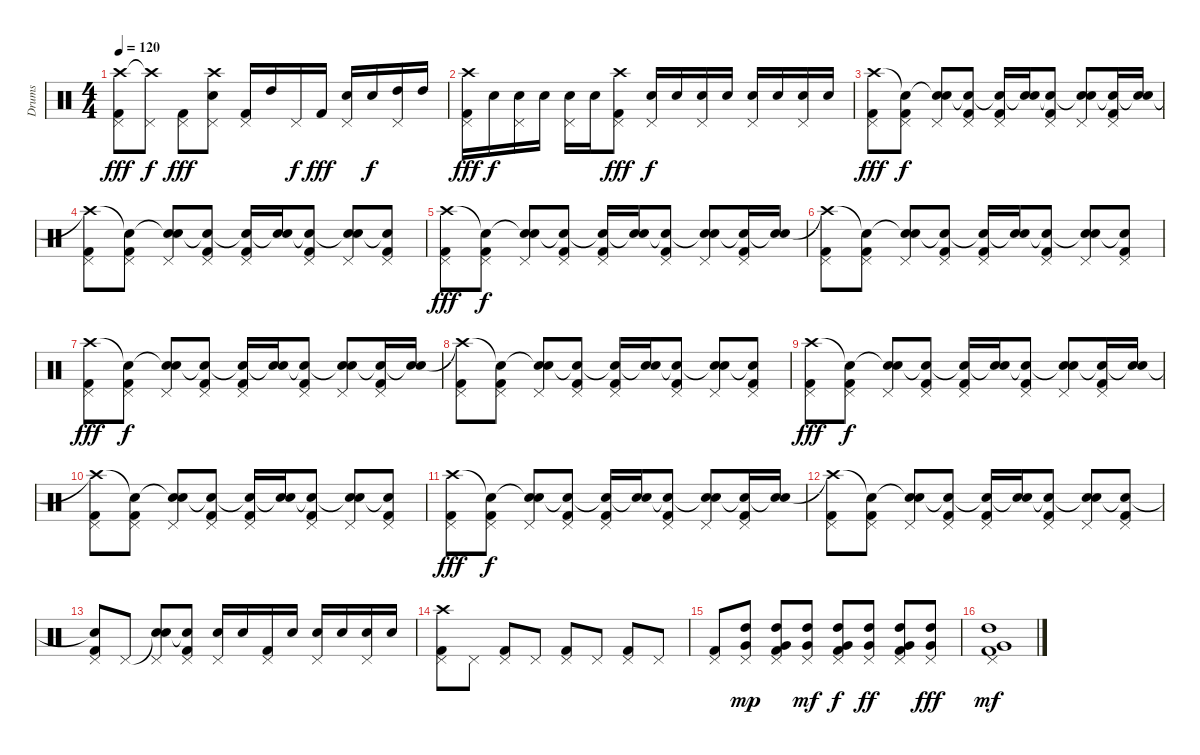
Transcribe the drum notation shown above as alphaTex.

\track ("Drums" "Drums") {instrument percussion}
\staff {score}
\articulation defaults
\ts (4 4)
\tempo 120
\clef neutral
\ks c
("Crash high (hit)" "Pedal Hi-Hat (hit)" "Kick (hit) 2").8{dy fff} ("Crash high (hit)"{t} "Pedal Hi-Hat (hit)").8{dy f} ("Pedal Hi-Hat (hit)" "Kick (hit) 2").8{dy fff} ("Crash high (hit)" "Pedal Hi-Hat (hit)" "Electric Snare (hit)").8 ("Pedal Hi-Hat (hit)" "Kick (hit) 2").16 "High Tom (hit)".16 "Pedal Hi-Hat (hit)".16{dy f} "Kick (hit) 2".16{dy fff} ("Pedal Hi-Hat (hit)" "Electric Snare (hit)").16 "Electric Snare (hit)".16{dy f} ("Pedal Hi-Hat (hit)" "High Tom (hit)").16 "High Tom (hit)".16 |
("Crash high (hit)" "Pedal Hi-Hat (hit)" "Kick (hit) 2").16{dy fff} "Electric Snare (hit)".16{dy f} ("Pedal Hi-Hat (hit)" "Electric Snare (hit)").16 "Electric Snare (hit)".16 ("Pedal Hi-Hat (hit)" "Electric Snare (hit)").16 "Electric Snare (hit)".16 ("Crash high (hit)" "Pedal Hi-Hat (hit)" "Kick (hit) 2").8{dy fff} ("Pedal Hi-Hat (hit)" "Electric Snare (hit)").16{dy f} "Electric Snare (hit)".16 ("Pedal Hi-Hat (hit)" "Electric Snare (hit)").16 "Electric Snare (hit)".16 ("Pedal Hi-Hat (hit)" "Electric Snare (hit)").16 "Electric Snare (hit)".16 ("Pedal Hi-Hat (hit)" "Electric Snare (hit)").16 "Electric Snare (hit)".16 |
("Crash high (hit)" "Pedal Hi-Hat (hit)" "Kick (hit) 2").8{dy fff} ("Snare (hit)"{t} "Pedal Hi-Hat (hit)" "Kick (hit) 2").8{dy f} ("Snare (hit)"{t} "Pedal Hi-Hat (hit)" "Electric Snare (hit)").8 ("Snare (hit)"{t} "Pedal Hi-Hat (hit)" "Kick (hit) 2").8 ("Snare (hit)"{t} "Pedal Hi-Hat (hit)" "Kick (hit) 2").16 ("Snare (hit)"{t} "Electric Snare (hit)").16 ("Snare (hit)"{t} "Pedal Hi-Hat (hit)" "Kick (hit) 2").8 ("Snare (hit)"{t} "Pedal Hi-Hat (hit)" "Electric Snare (hit)").8 ("Snare (hit)"{t} "Pedal Hi-Hat (hit)" "Kick (hit) 2").16 ("Snare (hit)"{t} "Electric Snare (hit)").16 |
("Crash high (hit)"{t} "Pedal Hi-Hat (hit)" "Kick (hit) 2").8 ("Snare (hit)"{t} "Pedal Hi-Hat (hit)" "Kick (hit) 2").8 ("Snare (hit)"{t} "Pedal Hi-Hat (hit)" "Electric Snare (hit)").8 ("Snare (hit)"{t} "Pedal Hi-Hat (hit)" "Kick (hit) 2").8 ("Snare (hit)"{t} "Pedal Hi-Hat (hit)" "Kick (hit) 2").16 ("Snare (hit)"{t} "Electric Snare (hit)").16 ("Snare (hit)"{t} "Pedal Hi-Hat (hit)" "Kick (hit) 2").8 ("Snare (hit)"{t} "Pedal Hi-Hat (hit)" "Electric Snare (hit)").8 ("Snare (hit)"{t} "Pedal Hi-Hat (hit)" "Kick (hit) 2").8 |
("Crash high (hit)" "Pedal Hi-Hat (hit)" "Kick (hit) 2").8{dy fff} ("Snare (hit)"{t} "Pedal Hi-Hat (hit)" "Kick (hit) 2").8{dy f} ("Snare (hit)"{t} "Pedal Hi-Hat (hit)" "Electric Snare (hit)").8 ("Snare (hit)"{t} "Pedal Hi-Hat (hit)" "Kick (hit) 2").8 ("Snare (hit)"{t} "Pedal Hi-Hat (hit)" "Kick (hit) 2").16 ("Snare (hit)"{t} "Electric Snare (hit)").16 ("Snare (hit)"{t} "Pedal Hi-Hat (hit)" "Kick (hit) 2").8 ("Snare (hit)"{t} "Pedal Hi-Hat (hit)" "Electric Snare (hit)").8 ("Snare (hit)"{t} "Pedal Hi-Hat (hit)" "Kick (hit) 2").16 ("Snare (hit)"{t} "Electric Snare (hit)").16 |
("Crash high (hit)"{t} "Pedal Hi-Hat (hit)" "Kick (hit) 2").8 ("Snare (hit)"{t} "Pedal Hi-Hat (hit)" "Kick (hit) 2").8 ("Snare (hit)"{t} "Pedal Hi-Hat (hit)" "Electric Snare (hit)").8 ("Snare (hit)"{t} "Pedal Hi-Hat (hit)" "Kick (hit) 2").8 ("Snare (hit)"{t} "Pedal Hi-Hat (hit)" "Kick (hit) 2").16 ("Snare (hit)"{t} "Electric Snare (hit)").16 ("Snare (hit)"{t} "Pedal Hi-Hat (hit)" "Kick (hit) 2").8 ("Snare (hit)"{t} "Pedal Hi-Hat (hit)" "Electric Snare (hit)").8 ("Snare (hit)"{t} "Pedal Hi-Hat (hit)" "Kick (hit) 2").8 |
("Crash high (hit)" "Pedal Hi-Hat (hit)" "Kick (hit) 2").8{dy fff} ("Snare (hit)"{t} "Pedal Hi-Hat (hit)" "Kick (hit) 2").8{dy f} ("Snare (hit)"{t} "Pedal Hi-Hat (hit)" "Electric Snare (hit)").8 ("Snare (hit)"{t} "Pedal Hi-Hat (hit)" "Kick (hit) 2").8 ("Snare (hit)"{t} "Pedal Hi-Hat (hit)" "Kick (hit) 2").16 ("Snare (hit)"{t} "Electric Snare (hit)").16 ("Snare (hit)"{t} "Pedal Hi-Hat (hit)" "Kick (hit) 2").8 ("Snare (hit)"{t} "Pedal Hi-Hat (hit)" "Electric Snare (hit)").8 ("Snare (hit)"{t} "Pedal Hi-Hat (hit)" "Kick (hit) 2").16 ("Snare (hit)"{t} "Electric Snare (hit)").16 |
("Crash high (hit)"{t} "Pedal Hi-Hat (hit)" "Kick (hit) 2").8 ("Snare (hit)"{t} "Pedal Hi-Hat (hit)" "Kick (hit) 2").8 ("Snare (hit)"{t} "Pedal Hi-Hat (hit)" "Electric Snare (hit)").8 ("Snare (hit)"{t} "Pedal Hi-Hat (hit)" "Kick (hit) 2").8 ("Snare (hit)"{t} "Pedal Hi-Hat (hit)" "Kick (hit) 2").16 ("Snare (hit)"{t} "Electric Snare (hit)").16 ("Snare (hit)"{t} "Pedal Hi-Hat (hit)" "Kick (hit) 2").8 ("Snare (hit)"{t} "Pedal Hi-Hat (hit)" "Electric Snare (hit)").8 ("Snare (hit)"{t} "Pedal Hi-Hat (hit)" "Kick (hit) 2").8 |
("Crash high (hit)" "Pedal Hi-Hat (hit)" "Kick (hit) 2").8{dy fff} ("Snare (hit)"{t} "Pedal Hi-Hat (hit)" "Kick (hit) 2").8{dy f} ("Snare (hit)"{t} "Pedal Hi-Hat (hit)" "Electric Snare (hit)").8 ("Snare (hit)"{t} "Pedal Hi-Hat (hit)" "Kick (hit) 2").8 ("Snare (hit)"{t} "Pedal Hi-Hat (hit)" "Kick (hit) 2").16 ("Snare (hit)"{t} "Electric Snare (hit)").16 ("Snare (hit)"{t} "Pedal Hi-Hat (hit)" "Kick (hit) 2").8 ("Snare (hit)"{t} "Pedal Hi-Hat (hit)" "Electric Snare (hit)").8 ("Snare (hit)"{t} "Pedal Hi-Hat (hit)" "Kick (hit) 2").16 ("Snare (hit)"{t} "Electric Snare (hit)").16 |
("Crash high (hit)"{t} "Pedal Hi-Hat (hit)" "Kick (hit) 2").8 ("Snare (hit)"{t} "Pedal Hi-Hat (hit)" "Kick (hit) 2").8 ("Snare (hit)"{t} "Pedal Hi-Hat (hit)" "Electric Snare (hit)").8 ("Snare (hit)"{t} "Pedal Hi-Hat (hit)" "Kick (hit) 2").8 ("Snare (hit)"{t} "Pedal Hi-Hat (hit)" "Kick (hit) 2").16 ("Snare (hit)"{t} "Electric Snare (hit)").16 ("Snare (hit)"{t} "Pedal Hi-Hat (hit)" "Kick (hit) 2").8 ("Snare (hit)"{t} "Pedal Hi-Hat (hit)" "Electric Snare (hit)").8 ("Snare (hit)"{t} "Pedal Hi-Hat (hit)" "Kick (hit) 2").8 |
("Crash high (hit)" "Pedal Hi-Hat (hit)" "Kick (hit) 2").8{dy fff} ("Snare (hit)"{t} "Pedal Hi-Hat (hit)" "Kick (hit) 2").8{dy f} ("Snare (hit)"{t} "Pedal Hi-Hat (hit)" "Electric Snare (hit)").8 ("Snare (hit)"{t} "Pedal Hi-Hat (hit)" "Kick (hit) 2").8 ("Snare (hit)"{t} "Pedal Hi-Hat (hit)" "Kick (hit) 2").16 ("Snare (hit)"{t} "Electric Snare (hit)").16 ("Snare (hit)"{t} "Pedal Hi-Hat (hit)" "Kick (hit) 2").8 ("Snare (hit)"{t} "Pedal Hi-Hat (hit)" "Electric Snare (hit)").8 ("Snare (hit)"{t} "Pedal Hi-Hat (hit)" "Kick (hit) 2").16 ("Snare (hit)"{t} "Electric Snare (hit)").16 |
("Crash high (hit)"{t} "Pedal Hi-Hat (hit)" "Kick (hit) 2").8 ("Snare (hit)"{t} "Pedal Hi-Hat (hit)" "Kick (hit) 2").8 ("Snare (hit)"{t} "Pedal Hi-Hat (hit)" "Electric Snare (hit)").8 ("Snare (hit)"{t} "Pedal Hi-Hat (hit)" "Kick (hit) 2").8 ("Snare (hit)"{t} "Pedal Hi-Hat (hit)" "Kick (hit) 2").16 ("Snare (hit)"{t} "Electric Snare (hit)").16 ("Snare (hit)"{t} "Pedal Hi-Hat (hit)" "Kick (hit) 2").8 ("Snare (hit)"{t} "Pedal Hi-Hat (hit)" "Electric Snare (hit)").8 ("Snare (hit)"{t} "Pedal Hi-Hat (hit)" "Kick (hit) 2").8 |
("Snare (hit)"{t} "Pedal Hi-Hat (hit)" "Kick (hit) 2").8 "Pedal Hi-Hat (hit)".8 ("Snare (hit)"{t} "Pedal Hi-Hat (hit)" "Electric Snare (hit)").8 ("Snare (hit)"{t} "Pedal Hi-Hat (hit)" "Kick (hit) 2").8 ("Pedal Hi-Hat (hit)" "Electric Snare (hit)").16 "Electric Snare (hit)".16 ("Pedal Hi-Hat (hit)" "Kick (hit) 2").16 "Electric Snare (hit)".16 ("Pedal Hi-Hat (hit)" "Electric Snare (hit)").16 "Electric Snare (hit)".16 ("Pedal Hi-Hat (hit)" "Electric Snare (hit)").16 "Electric Snare (hit)".16 |
("Crash high (hit)" "Pedal Hi-Hat (hit)" "Kick (hit) 2").8 "Pedal Hi-Hat (hit)".8 ("Pedal Hi-Hat (hit)" "Kick (hit) 2").8 "Pedal Hi-Hat (hit)".8 ("Pedal Hi-Hat (hit)" "Kick (hit) 2").8 "Pedal Hi-Hat (hit)".8 ("Pedal Hi-Hat (hit)" "Kick (hit) 2").8 "Pedal Hi-Hat (hit)".8 |
("Pedal Hi-Hat (hit)" "Kick (hit) 2").8 ("Pedal Hi-Hat (hit)" "High Tom (hit)" "Very Low Tom (hit)").8{dy mp} ("Pedal Hi-Hat (hit)" "High Tom (hit)" "Very Low Tom (hit)" "Kick (hit) 2").8 ("Pedal Hi-Hat (hit)" "High Tom (hit)" "Very Low Tom (hit)").8{dy mf} ("Pedal Hi-Hat (hit)" "High Tom (hit)" "Very Low Tom (hit)" "Kick (hit) 2").8{dy f} ("Pedal Hi-Hat (hit)" "High Tom (hit)" "Very Low Tom (hit)").8{dy ff} ("Pedal Hi-Hat (hit)" "High Tom (hit)" "Very Low Tom (hit)" "Kick (hit) 2").8 ("Pedal Hi-Hat (hit)" "High Tom (hit)" "Very Low Tom (hit)").8{dy fff} |
("Pedal Hi-Hat (hit)" "High Tom (hit)" "Very Low Tom (hit)" "Kick (hit) 2").1{dy mf}
